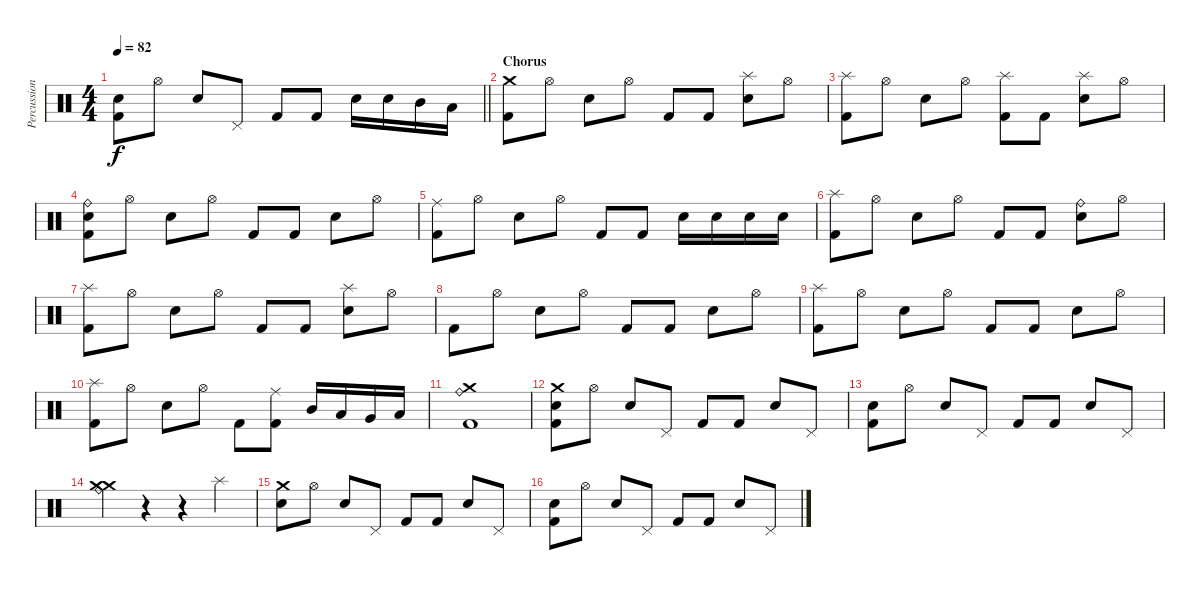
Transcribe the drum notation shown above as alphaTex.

\track ("Percussion" "Percussion") {instrument percussion}
\staff {score}
\articulation defaults
\ts (4 4)
\tempo 82
\clef neutral
\barLineRight lightlight
\ks c
("Snare (hit)" "Kick (hit) 2").8{dy f} "Hi-Hat (open)".8 "Snare (hit) 2".8 "Pedal Hi-Hat (hit)".8 "Kick (hit) 2".8 "Kick (hit) 2".8 "Snare (hit) 2".16 "Snare (hit) 2".16 "Mid Tom (hit)".16 "Low Tom (hit)".16 |
\section ("" "Chorus")
("Kick (hit) 2" "Crash medium (hit)").8 "Hi-Hat (open)".8 "Snare (hit) 2".8 "Hi-Hat (open)".8 "Kick (hit) 2".8 "Kick (hit) 2".8 ("Snare (hit) 2" "Splash (hit)").8 "Hi-Hat (open)".8 |
("Kick (hit) 2" "Splash (hit)").8 "Hi-Hat (open)".8 "Snare (hit) 2".8 "Hi-Hat (open)".8 ("Splash (hit)" "Kick (hit) 2").8 "Kick (hit) 2".8 ("Splash (hit)" "Snare (hit) 2").8 "Hi-Hat (open)".8 |
("Snare (hit)" "Kick (hit) 2" "Ride (bell)").8 "Hi-Hat (open)".8 "Snare (hit) 2".8 "Hi-Hat (open)".8 "Kick (hit) 2".8 "Kick (hit) 2".8 "Snare (hit) 2".8 "Hi-Hat (open)".8 |
("Kick (hit) 2" "Ride (middle)").8 "Hi-Hat (open)".8 "Snare (hit) 2".8 "Hi-Hat (open)".8 "Kick (hit) 2".8 "Kick (hit) 2".8 "Snare (hit) 2".16 "Snare (hit) 2".16 "Snare (hit) 2".16 "Snare (hit) 2".16 |
("Kick (hit) 2" "Splash (hit)").8 "Hi-Hat (open)".8 "Snare (hit) 2".8 "Hi-Hat (open)".8 "Kick (hit) 2".8 "Kick (hit) 2".8 ("Ride (bell)" "Snare (hit) 2").8 "Hi-Hat (open)".8 |
("Kick (hit) 2" "Splash (hit)").8 "Hi-Hat (open)".8 "Snare (hit) 2".8 "Hi-Hat (open)".8 "Kick (hit) 2".8 "Kick (hit) 2".8 ("Splash (hit)" "Snare (hit) 2").8 "Hi-Hat (open)".8 |
"Kick (hit) 2".8 "Hi-Hat (open)".8 "Snare (hit) 2".8 "Hi-Hat (open)".8 "Kick (hit) 2".8 "Kick (hit) 2".8 "Snare (hit) 2".8 "Hi-Hat (open)".8 |
("Splash (hit)" "Kick (hit) 2").8 "Hi-Hat (open)".8 "Snare (hit) 2".8 "Hi-Hat (open)".8 "Kick (hit) 2".8 "Kick (hit) 2".8 "Snare (hit) 2".8 "Hi-Hat (open)".8 |
("Splash (hit)" "Kick (hit) 2").8 "Hi-Hat (open)".8 "Snare (hit) 2".8 "Hi-Hat (open)".8 "Kick (hit) 2".8 ("Ride (middle)" "Kick (hit) 2").8 "Mid Tom (hit)".16 "Low Tom (hit)".16 "Very Low Tom (hit)".16 "Low Floor Tom (hit)".16 |
("Kick (hit) 2" "Crash medium (hit)" "Ride (bell)").1 |
("Kick (hit) 2" "Crash medium (hit)" "Snare (hit)").8 "Hi-Hat (open)".8 "Snare (hit) 2".8 "Pedal Hi-Hat (hit)".8 "Kick (hit) 2".8 "Kick (hit) 2".8 "Snare (hit) 2".8 "Pedal Hi-Hat (hit)".8 |
("Snare (hit)" "Kick (hit) 2").8 "Hi-Hat (open)".8 "Snare (hit) 2".8 "Pedal Hi-Hat (hit)".8 "Kick (hit) 2".8 "Kick (hit) 2".8 "Snare (hit) 2".8 "Pedal Hi-Hat (hit)".8 |
("Crash medium (hit)" "Ride (bell)" "Crash medium (hit)").4 r.4 r.4 "Splash (hit)".4 |
("Snare (hit)" "Crash medium (hit)").8 "Hi-Hat (open)".8 "Snare (hit) 2".8 "Pedal Hi-Hat (hit)".8 "Kick (hit) 2".8 "Kick (hit) 2".8 "Snare (hit) 2".8 "Pedal Hi-Hat (hit)".8 |
("Snare (hit)" "Kick (hit) 2").8 "Hi-Hat (open)".8 "Snare (hit) 2".8 "Pedal Hi-Hat (hit)".8 "Kick (hit) 2".8 "Kick (hit) 2".8 "Snare (hit) 2".8 "Pedal Hi-Hat (hit)".8
